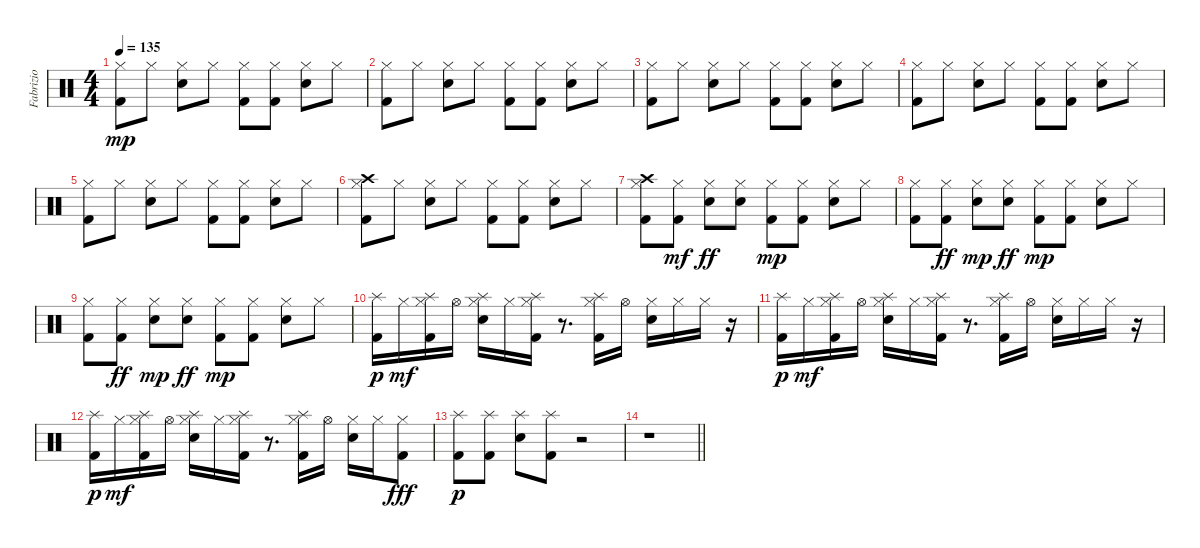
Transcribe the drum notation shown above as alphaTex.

\track ("Fabrizio" "Fabrizio") {instrument percussion}
\staff {score}
\articulation defaults
\ts (4 4)
\tempo 135
\clef neutral
\ks c
("Hi-Hat (closed)" "Kick (hit) 2").8{dy mp} "Hi-Hat (closed)".8 ("Hi-Hat (closed)" "Electric Snare (hit)").8 "Hi-Hat (closed)".8 ("Hi-Hat (closed)" "Kick (hit) 2").8 ("Hi-Hat (closed)" "Kick (hit) 2").8 ("Hi-Hat (closed)" "Electric Snare (hit)").8 "Hi-Hat (closed)".8 |
("Hi-Hat (closed)" "Kick (hit) 2").8 "Hi-Hat (closed)".8 ("Hi-Hat (closed)" "Electric Snare (hit)").8 "Hi-Hat (closed)".8 ("Hi-Hat (closed)" "Kick (hit) 2").8 ("Hi-Hat (closed)" "Kick (hit) 2").8 ("Hi-Hat (closed)" "Electric Snare (hit)").8 "Hi-Hat (closed)".8 |
("Hi-Hat (closed)" "Kick (hit) 2").8 "Hi-Hat (closed)".8 ("Hi-Hat (closed)" "Electric Snare (hit)").8 "Hi-Hat (closed)".8 ("Hi-Hat (closed)" "Kick (hit) 2").8 ("Hi-Hat (closed)" "Kick (hit) 2").8 ("Hi-Hat (closed)" "Electric Snare (hit)").8 "Hi-Hat (closed)".8 |
("Hi-Hat (closed)" "Kick (hit) 2").8 "Hi-Hat (closed)".8 ("Hi-Hat (closed)" "Electric Snare (hit)").8 "Hi-Hat (closed)".8 ("Hi-Hat (closed)" "Kick (hit) 2").8 ("Hi-Hat (closed)" "Kick (hit) 2").8 ("Hi-Hat (closed)" "Electric Snare (hit)").8 "Hi-Hat (closed)".8 |
("Hi-Hat (closed)" "Kick (hit) 2").8 "Hi-Hat (closed)".8 ("Hi-Hat (closed)" "Electric Snare (hit)").8 "Hi-Hat (closed)".8 ("Hi-Hat (closed)" "Kick (hit) 2").8 ("Hi-Hat (closed)" "Kick (hit) 2").8 ("Hi-Hat (closed)" "Electric Snare (hit)").8 "Hi-Hat (closed)".8 |
("Crash high (hit)" "Hi-Hat (closed)" "Kick (hit) 2").8 "Hi-Hat (closed)".8 ("Hi-Hat (closed)" "Electric Snare (hit)").8 "Hi-Hat (closed)".8 ("Hi-Hat (closed)" "Kick (hit) 2").8 ("Hi-Hat (closed)" "Kick (hit) 2").8 ("Hi-Hat (closed)" "Electric Snare (hit)").8 "Hi-Hat (closed)".8 |
("Crash high (hit)" "Hi-Hat (closed)" "Kick (hit) 2").8 ("Hi-Hat (closed)" "Kick (hit) 2").8{dy mf} ("Hi-Hat (closed)" "Electric Snare (hit)").8{dy ff} ("Hi-Hat (closed)" "Electric Snare (hit)").8 ("Hi-Hat (closed)" "Kick (hit) 2").8{dy mp} ("Hi-Hat (closed)" "Kick (hit) 2").8 ("Hi-Hat (closed)" "Electric Snare (hit)").8 "Hi-Hat (closed)".8 |
("Hi-Hat (closed)" "Kick (hit) 2").8 ("Hi-Hat (closed)" "Kick (hit) 2").8{dy ff} ("Hi-Hat (closed)" "Electric Snare (hit)").8{dy mp} ("Hi-Hat (closed)" "Electric Snare (hit)").8{dy ff} ("Hi-Hat (closed)" "Kick (hit) 2").8{dy mp} ("Hi-Hat (closed)" "Kick (hit) 2").8 ("Hi-Hat (closed)" "Electric Snare (hit)").8 "Hi-Hat (closed)".8 |
("Hi-Hat (closed)" "Kick (hit) 2").8 ("Hi-Hat (closed)" "Kick (hit) 2").8{dy ff} ("Hi-Hat (closed)" "Electric Snare (hit)").8{dy mp} ("Hi-Hat (closed)" "Electric Snare (hit)").8{dy ff} ("Hi-Hat (closed)" "Kick (hit) 2").8{dy mp} ("Hi-Hat (closed)" "Kick (hit) 2").8 ("Hi-Hat (closed)" "Electric Snare (hit)").8 "Hi-Hat (closed)".8 |
("Splash (hit)" "Kick (hit) 2").16{dy p} "Hi-Hat (closed)".16{dy mf} ("Splash (hit)" "Hi-Hat (closed)" "Kick (hit) 2").16 "Hi-Hat (open)".16 ("Splash (hit)" "Hi-Hat (closed)" "Electric Snare (hit)").16 "Hi-Hat (closed)".16 ("Splash (hit)" "Hi-Hat (closed)" "Kick (hit) 2").16 r.8{d} ("Splash (hit)" "Hi-Hat (closed)" "Kick (hit) 2").16 "Hi-Hat (open)".16 ("Hi-Hat (closed)" "Electric Snare (hit)").16 "Hi-Hat (closed)".16 "Hi-Hat (closed)".16 r.16 |
("Splash (hit)" "Kick (hit) 2").16{dy p} "Hi-Hat (closed)".16{dy mf} ("Splash (hit)" "Hi-Hat (closed)" "Kick (hit) 2").16 "Hi-Hat (open)".16 ("Splash (hit)" "Hi-Hat (closed)" "Electric Snare (hit)").16 "Hi-Hat (closed)".16 ("Splash (hit)" "Hi-Hat (closed)" "Kick (hit) 2").16 r.8{d} ("Splash (hit)" "Hi-Hat (closed)" "Kick (hit) 2").16 "Hi-Hat (open)".16 ("Hi-Hat (closed)" "Electric Snare (hit)").16 "Hi-Hat (closed)".16 "Hi-Hat (closed)".16 r.16 |
("Splash (hit)" "Kick (hit) 2").16{dy p} "Hi-Hat (closed)".16{dy mf} ("Splash (hit)" "Hi-Hat (closed)" "Kick (hit) 2").16 "Hi-Hat (open)".16 ("Splash (hit)" "Hi-Hat (closed)" "Electric Snare (hit)").16 "Hi-Hat (closed)".16 ("Splash (hit)" "Hi-Hat (closed)" "Kick (hit) 2").16 r.8{d} ("Splash (hit)" "Hi-Hat (closed)" "Kick (hit) 2").16 "Hi-Hat (open)".16 ("Hi-Hat (closed)" "Electric Snare (hit)").16 "Hi-Hat (closed)".16 ("Hi-Hat (closed)" "Kick (hit) 2").8{dy fff} |
("Splash (hit)" "Kick (hit) 2").8{dy p} ("Splash (hit)" "Kick (hit) 2").8 ("Splash (hit)" "Electric Snare (hit)").8 ("Splash (hit)" "Kick (hit) 2").8 r.2 |
\barLineRight lightlight
r.1
